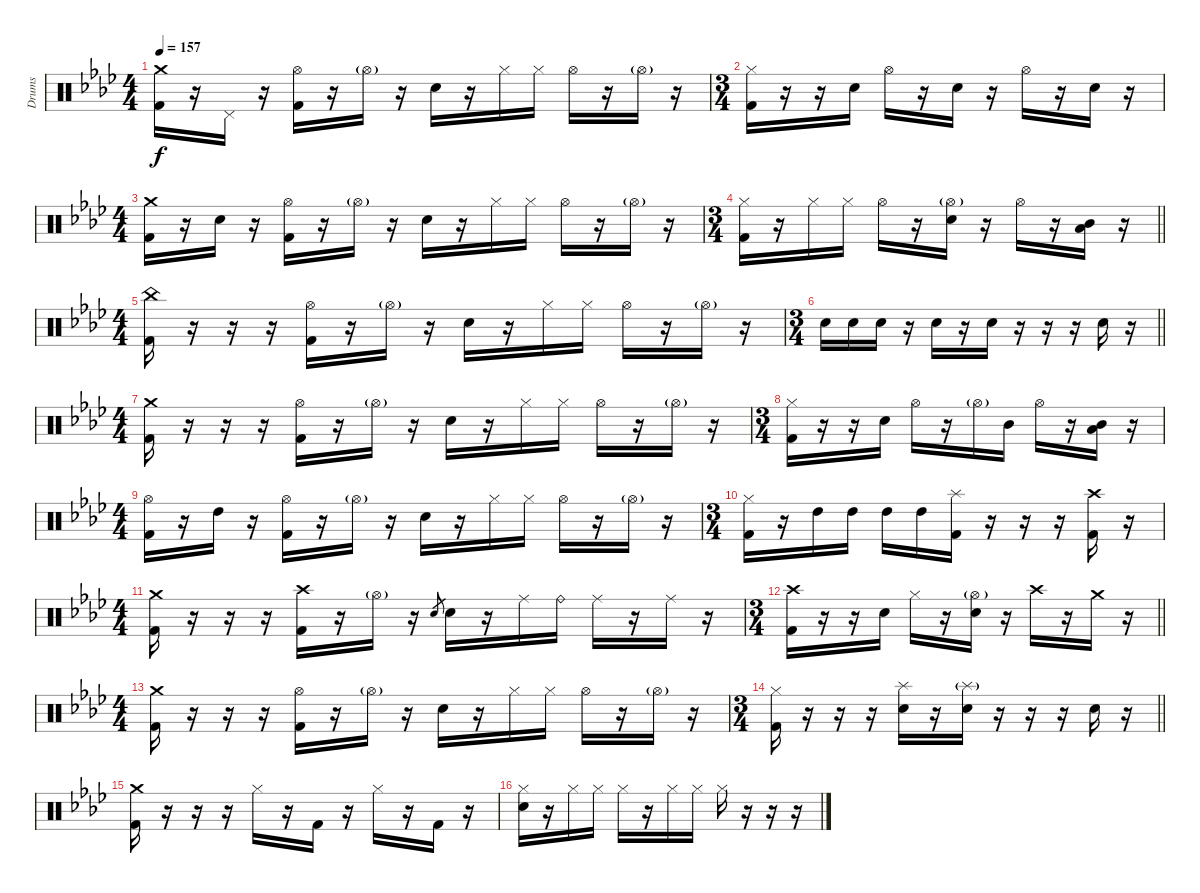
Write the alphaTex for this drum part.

\bracketExtendMode groupsimilarinstruments
\otherSystemsTrackNameOrientation horizontal
\track ("Guyot Begin-Benoit" "Drums") {instrument percussion}
\staff {score}
\articulation defaults
\ts (4 4)
\beaming (8 2 2 2 2)
\tempo 157
\clef neutral
\ks ab
("Crash medium (hit)"{acc forcenatural} "Kick (hit) 2"{acc forcenatural}).16{dy f beam Down} r.16{beam Down} "Pedal Hi-Hat (hit)"{acc forcenatural}.16{beam Down} r.16{beam Down} ("Hi-Hat (open)"{acc forcenatural} "Kick (hit) 2"{acc forcenatural}).16{beam Down} r.16{beam Down} "Hi-Hat (open)"{g acc forcenatural}.16{beam Down} r.16{beam Down} "Snare (hit) 2"{acc forcenatural}.16{beam Down} r.16{beam Down} "Hi-Hat (closed)"{acc forcenatural}.16{beam Down} "Hi-Hat (closed)"{acc forcenatural}.16{beam Down} "Hi-Hat (open)"{acc forcenatural}.16{beam Down} r.16{beam Down} "Hi-Hat (open)"{g acc forcenatural}.16{beam Down} r.16{beam Down} |
\ts (3 4)
\beaming (8 2 2 2 2)
("Hi-Hat (closed)"{acc forcenatural} "Kick (hit) 2"{acc forcenatural}).16{beam Down} r.16{beam Down} r.16{beam Down} "Snare (hit) 2"{acc forcenatural}.16{beam Down} "Hi-Hat (open)"{acc forcenatural}.16{beam Down} r.16{beam Down} "Snare (hit) 2"{acc forcenatural}.16{beam Down} r.16{beam Down} "Hi-Hat (open)"{acc forcenatural}.16{beam Down} r.16{beam Down} "Snare (hit) 2"{acc forcenatural}.16{beam Down} r.16{beam Down} |
\ts (4 4)
\beaming (8 2 2 2 2)
("Crash medium (hit)"{acc forcenatural} "Kick (hit) 2"{acc forcenatural}).16{beam Down} r.16{beam Down} "Snare (hit) 2"{acc forcenatural}.16{beam Down} r.16{beam Down} ("Hi-Hat (open)"{acc forcenatural} "Kick (hit) 2"{acc forcenatural}).16{beam Down} r.16{beam Down} "Hi-Hat (open)"{g acc forcenatural}.16{beam Down} r.16{beam Down} "Snare (hit) 2"{acc forcenatural}.16{beam Down} r.16{beam Down} "Hi-Hat (closed)"{acc forcenatural}.16{beam Down} "Hi-Hat (closed)"{acc forcenatural}.16{beam Down} "Hi-Hat (open)"{acc forcenatural}.16{beam Down} r.16{beam Down} "Hi-Hat (open)"{g acc forcenatural}.16{beam Down} r.16{beam Down} |
\ts (3 4)
\beaming (8 2 2 2 2)
\barLineRight lightlight
("Hi-Hat (closed)"{acc forcenatural} "Kick (hit) 2"{acc forcenatural}).16{beam Down} r.16{beam Down} "Hi-Hat (closed)"{acc forcenatural}.16{beam Down} "Hi-Hat (closed)"{acc forcenatural}.16{beam Down} "Hi-Hat (open)"{acc forcenatural}.16{beam Down} r.16{beam Down} ("Hi-Hat (open)"{g acc forcenatural} "Snare (hit) 2"{acc forcenatural}).16{beam Down} r.16{beam Down} "Hi-Hat (open)"{acc forcenatural}.16{beam Down} r.16{beam Down} ("Mid Tom (hit)"{acc forcenatural} "Low Tom (hit)"{acc forcenatural}).16{beam Down} r.16{beam Down} |
\ts (4 4)
\beaming (8 2 2 2 2)
("China (hit)"{acc forcenatural} "Kick (hit) 2"{acc forcenatural}).16{beam Down} r.16{beam Down} r.16{beam Down} r.16{beam Down} ("Hi-Hat (open)"{acc forcenatural} "Kick (hit) 2"{acc forcenatural}).16{beam Down} r.16{beam Down} "Hi-Hat (open)"{g acc forcenatural}.16{beam Down} r.16{beam Down} "Snare (hit) 2"{acc forcenatural}.16{beam Down} r.16{beam Down} "Hi-Hat (closed)"{acc forcenatural}.16{beam Down} "Hi-Hat (closed)"{acc forcenatural}.16{beam Down} "Hi-Hat (open)"{acc forcenatural}.16{beam Down} r.16{beam Down} "Hi-Hat (open)"{g acc forcenatural}.16{beam Down} r.16{beam Down} |
\ts (3 4)
\beaming (8 2 2 2 2)
\barLineRight lightlight "Snare (hit) 2"{acc forcenatural}.16{beam Down} "Snare (hit) 2"{acc forcenatural}.16{beam Down} "Snare (hit) 2"{acc forcenatural}.16{beam Down}
r.16{beam Down} "Snare (hit) 2"{acc forcenatural}.16{beam Down} r.16{beam Down} "Snare (hit) 2"{acc forcenatural}.16{beam Down} r.16{beam Down} r.16{beam Down} r.16{beam Down} "Snare (hit) 2"{acc forcenatural}.16{beam Down} r.16{beam Down} |
\ts (4 4)
\beaming (8 2 2 2 2)
\section ("" "")
("Crash medium (hit)"{acc forcenatural} "Kick (hit) 2"{acc forcenatural}).16{beam Down} r.16{beam Down} r.16{beam Down} r.16{beam Down} ("Hi-Hat (open)"{acc forcenatural} "Kick (hit) 2"{acc forcenatural}).16{beam Down} r.16{beam Down} "Hi-Hat (open)"{g acc forcenatural}.16{beam Down} r.16{beam Down} "Snare (hit) 2"{acc forcenatural}.16{beam Down} r.16{beam Down} "Hi-Hat (closed)"{acc forcenatural}.16{beam Down} "Hi-Hat (closed)"{acc forcenatural}.16{beam Down} "Hi-Hat (open)"{acc forcenatural}.16{beam Down} r.16{beam Down} "Hi-Hat (open)"{g acc forcenatural}.16{beam Down} r.16{beam Down} |
\ts (3 4)
\beaming (8 2 2 2 2)
("Hi-Hat (closed)"{acc forcenatural} "Kick (hit) 2"{acc forcenatural}).16{beam Down} r.16{beam Down} r.16{beam Down} "Snare (hit) 2"{acc forcenatural}.16{beam Down} "Hi-Hat (open)"{acc forcenatural}.16{beam Down} r.16{beam Down} "Hi-Hat (open)"{g acc forcenatural}.16{beam Down} "Mid Tom (hit)"{acc forcenatural}.16{beam Down} "Hi-Hat (open)"{acc forcenatural}.16{beam Down} r.16{beam Down} ("Mid Tom (hit)"{acc forcenatural} "Low Tom (hit)"{acc forcenatural}).16{beam Down} r.16{beam Down} |
\ts (4 4)
\beaming (8 2 2 2 2)
("Hi-Hat (open)"{acc forcenatural} "Kick (hit) 2"{acc forcenatural}).16{beam Down} r.16{beam Down} "High Tom (hit)"{acc forcenatural}.16{beam Down} r.16{beam Down} ("Hi-Hat (open)"{acc forcenatural} "Kick (hit) 2"{acc forcenatural}).16{beam Down} r.16{beam Down} "Hi-Hat (open)"{g acc forcenatural}.16{beam Down} r.16{beam Down} "Snare (hit) 2"{acc forcenatural}.16{beam Down} r.16{beam Down} "Hi-Hat (closed)"{acc forcenatural}.16{beam Down} "Hi-Hat (closed)"{acc forcenatural}.16{beam Down} "Hi-Hat (open)"{acc forcenatural}.16{beam Down} r.16{beam Down} "Hi-Hat (open)"{g acc forcenatural}.16{beam Down} r.16{beam Down} |
\ts (3 4)
\beaming (8 2 2 2 2)
("Hi-Hat (closed)"{acc forcenatural} "Kick (hit) 2"{acc forcenatural}).16{beam Down} r.16{beam Down} "High Tom (hit)"{acc forcenatural}.16{beam Down} "High Tom (hit)"{acc forcenatural}.16{beam Down} "High Tom (hit)"{acc forcenatural}.16{beam Down} "High Tom (hit)"{acc forcenatural}.16{beam Down} ("Splash (hit)"{acc forcenatural} "Kick (hit) 2"{acc forcenatural}).16{beam Down} r.16{beam Down} r.16{beam Down} r.16{beam Down} ("Crash high (hit)"{acc forcenatural} "Kick (hit) 2"{acc forcenatural}).16{beam Down} r.16{beam Down} |
\ts (4 4)
\beaming (8 2 2 2 2)
("Crash medium (hit)"{acc forcenatural} "Kick (hit) 2"{acc forcenatural}).16{beam Down} r.16{beam Down} r.16{beam Down} r.16{beam Down} ("Crash high (hit)"{acc forcenatural} "Kick (hit) 2"{acc forcenatural}).16{beam Down} r.16{beam Down} "Hi-Hat (open)"{g acc forcenatural}.16{beam Down} r.16{beam Down} "Snare (hit) 2"{acc forcenatural}.8{gr beam Up} "Snare (hit) 2"{acc forcenatural}.16{beam Down} r.16{beam Down} "Ride (middle)"{acc forcenatural}.16{beam Down} "Ride (bell)"{acc forcenatural}.16{beam Down} "Ride (middle)"{acc forcenatural}.16{beam Down} r.16{beam Down} "Ride (middle)"{acc forcenatural}.16{beam Down} r.16{beam Down} |
\ts (3 4)
\beaming (8 2 2 2 2)
\barLineRight lightlight
("Crash high (hit)"{acc forcenatural} "Kick (hit) 2"{acc forcenatural}).16{beam Down} r.16{beam Down} r.16{beam Down} "Snare (hit) 2"{acc forcenatural}.16{beam Down} "Hi-Hat (closed)"{acc forcenatural}.16{beam Down} r.16{beam Down} ("Hi-Hat (open)"{g acc forcenatural} "Snare (hit) 2"{acc forcenatural}).16{beam Down} r.16{beam Down} "Crash high (hit)"{acc forcenatural}.16{beam Down} r.16{beam Down} "Crash medium (hit)"{acc forcenatural}.16{beam Down} r.16{beam Down} |
\ts (4 4)
\beaming (8 2 2 2 2)
("Crash medium (hit)"{acc forcenatural} "Kick (hit) 2"{acc forcenatural}).16{beam Down} r.16{beam Down} r.16{beam Down} r.16{beam Down} ("Hi-Hat (open)"{acc forcenatural} "Kick (hit) 2"{acc forcenatural}).16{beam Down} r.16{beam Down} "Hi-Hat (open)"{g acc forcenatural}.16{beam Down} r.16{beam Down} "Snare (hit) 2"{acc forcenatural}.16{beam Down} r.16{beam Down} "Hi-Hat (closed)"{acc forcenatural}.16{beam Down} "Hi-Hat (closed)"{acc forcenatural}.16{beam Down} "Hi-Hat (open)"{acc forcenatural}.16{beam Down} r.16{beam Down} "Hi-Hat (open)"{g acc forcenatural}.16{beam Down} r.16{beam Down} |
\ts (3 4)
\beaming (8 2 2 2 2)
\barLineRight lightlight
("Hi-Hat (closed)"{acc forcenatural} "Kick (hit) 2"{acc forcenatural}).16{beam Down} r.16{beam Down} r.16{beam Down} r.16{beam Down} ("Splash (hit)"{acc forcenatural} "Snare (hit) 2"{acc forcenatural}).16{beam Down} r.16{beam Down} ("Splash (hit)"{g acc forcenatural} "Snare (hit) 2"{acc forcenatural}).16{beam Down} r.16{beam Down} r.16{beam Down} r.16{beam Down} "Snare (hit) 2"{acc forcenatural}.16{beam Down} r.16{beam Down} |
\section ("" "")
("Crash medium (hit)"{acc forcenatural} "Kick (hit) 2"{acc forcenatural}).16{beam Down} r.16{beam Down} r.16{beam Down} r.16{beam Down} "Hi-Hat (closed)"{acc forcenatural}.16{beam Down} r.16{beam Down} "Kick (hit) 2"{acc forcenatural}.16{beam Down} r.16{beam Down} "Hi-Hat (closed)"{acc forcenatural}.16{beam Down} r.16{beam Down} "Kick (hit) 2"{acc forcenatural}.16{beam Down} r.16{beam Down} |
("Hi-Hat (closed)"{acc forcenatural} "Snare (hit) 2"{acc forcenatural}).16{beam Down} r.16{beam Down} "Hi-Hat (closed)"{acc forcenatural}.16{beam Down} "Hi-Hat (closed)"{acc forcenatural}.16{beam Down} "Hi-Hat (closed)"{acc forcenatural}.16{beam Down} r.16{beam Down} "Hi-Hat (closed)"{acc forcenatural}.16{beam Down} "Hi-Hat (closed)"{acc forcenatural}.16{beam Down} "Hi-Hat (closed)"{acc forcenatural}.16{beam Down} r.16{beam Down} r.16{beam Down} r.16{beam Down}
